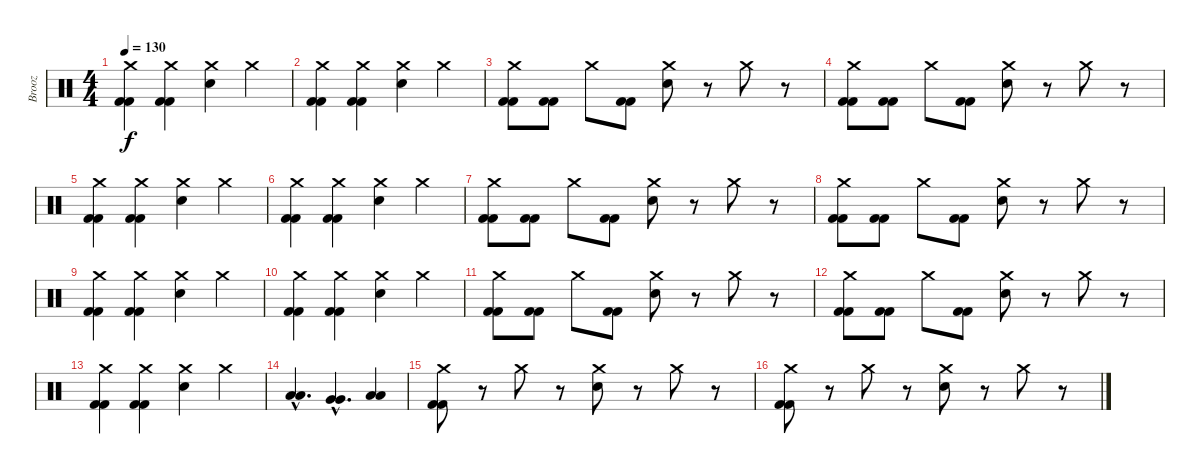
\track ("Brooz" "Brooz") {instrument percussion}
\staff {score}
\articulation defaults
\ts (4 4)
\tempo 130
\clef neutral
\ks c
("Kick (hit) 2" "Crash medium (hit)" "Kick (hit) 2").4{dy f} ("Kick (hit) 2" "Crash medium (hit)" "Kick (hit) 2").4 ("Crash medium (hit)" "Electric Snare (hit)").4 "Crash medium (hit)".4 |
("Kick (hit) 2" "Crash medium (hit)" "Kick (hit) 2").4 ("Kick (hit) 2" "Crash medium (hit)" "Kick (hit) 2").4 ("Crash medium (hit)" "Electric Snare (hit)").4 "Crash medium (hit)".4 |
("Kick (hit) 2" "Crash medium (hit)" "Kick (hit) 2").8 ("Kick (hit) 2" "Kick (hit) 2").8 "Crash medium (hit)".8 ("Kick (hit) 2" "Kick (hit) 2").8 ("Crash medium (hit)" "Electric Snare (hit)").8 r.8 "Crash medium (hit)".8 r.8 |
("Kick (hit) 2" "Crash medium (hit)" "Kick (hit) 2").8 ("Kick (hit) 2" "Kick (hit) 2").8 "Crash medium (hit)".8 ("Kick (hit) 2" "Kick (hit) 2").8 ("Crash medium (hit)" "Electric Snare (hit)").8 r.8 "Crash medium (hit)".8 r.8 |
("Kick (hit) 2" "Crash medium (hit)" "Kick (hit) 2").4 ("Kick (hit) 2" "Crash medium (hit)" "Kick (hit) 2").4 ("Crash medium (hit)" "Electric Snare (hit)").4 "Crash medium (hit)".4 |
("Kick (hit) 2" "Crash medium (hit)" "Kick (hit) 2").4 ("Kick (hit) 2" "Crash medium (hit)" "Kick (hit) 2").4 ("Crash medium (hit)" "Electric Snare (hit)").4 "Crash medium (hit)".4 |
("Kick (hit) 2" "Crash medium (hit)" "Kick (hit) 2").8 ("Kick (hit) 2" "Kick (hit) 2").8 "Crash medium (hit)".8 ("Kick (hit) 2" "Kick (hit) 2").8 ("Crash medium (hit)" "Electric Snare (hit)").8 r.8 "Crash medium (hit)".8 r.8 |
("Kick (hit) 2" "Crash medium (hit)" "Kick (hit) 2").8 ("Kick (hit) 2" "Kick (hit) 2").8 "Crash medium (hit)".8 ("Kick (hit) 2" "Kick (hit) 2").8 ("Crash medium (hit)" "Electric Snare (hit)").8 r.8 "Crash medium (hit)".8 r.8 |
("Kick (hit) 2" "Crash medium (hit)" "Kick (hit) 2").4 ("Kick (hit) 2" "Crash medium (hit)" "Kick (hit) 2").4 ("Crash medium (hit)" "Electric Snare (hit)").4 "Crash medium (hit)".4 |
("Kick (hit) 2" "Crash medium (hit)" "Kick (hit) 2").4 ("Kick (hit) 2" "Crash medium (hit)" "Kick (hit) 2").4 ("Crash medium (hit)" "Electric Snare (hit)").4 "Crash medium (hit)".4 |
("Kick (hit) 2" "Crash medium (hit)" "Kick (hit) 2").8 ("Kick (hit) 2" "Kick (hit) 2").8 "Crash medium (hit)".8 ("Kick (hit) 2" "Kick (hit) 2").8 ("Crash medium (hit)" "Electric Snare (hit)").8 r.8 "Crash medium (hit)".8 r.8 |
("Kick (hit) 2" "Crash medium (hit)" "Kick (hit) 2").8 ("Kick (hit) 2" "Kick (hit) 2").8 "Crash medium (hit)".8 ("Kick (hit) 2" "Kick (hit) 2").8 ("Crash medium (hit)" "Electric Snare (hit)").8 r.8 "Crash medium (hit)".8 r.8 |
("Kick (hit) 2" "Crash medium (hit)" "Kick (hit) 2").4 ("Kick (hit) 2" "Crash medium (hit)" "Kick (hit) 2").4 ("Crash medium (hit)" "Electric Snare (hit)").4 "Crash medium (hit)".4 |
("Low Tom (hit)"{hac} "Low Tom (hit)"{hac}).4{d} ("Very Low Tom (hit)"{hac} "Very Low Tom (hit)"{hac}).4{d} ("Low Floor Tom (hit)" "Low Floor Tom (hit)").4 |
("Kick (hit) 2" "Crash medium (hit)" "Kick (hit) 2").8 r.8 "Crash medium (hit)".8 r.8 ("Crash medium (hit)" "Electric Snare (hit)").8 r.8 "Crash medium (hit)".8 r.8 |
("Kick (hit) 2" "Crash medium (hit)" "Kick (hit) 2").8 r.8 "Crash medium (hit)".8 r.8 ("Crash medium (hit)" "Electric Snare (hit)").8 r.8 "Crash medium (hit)".8 r.8
